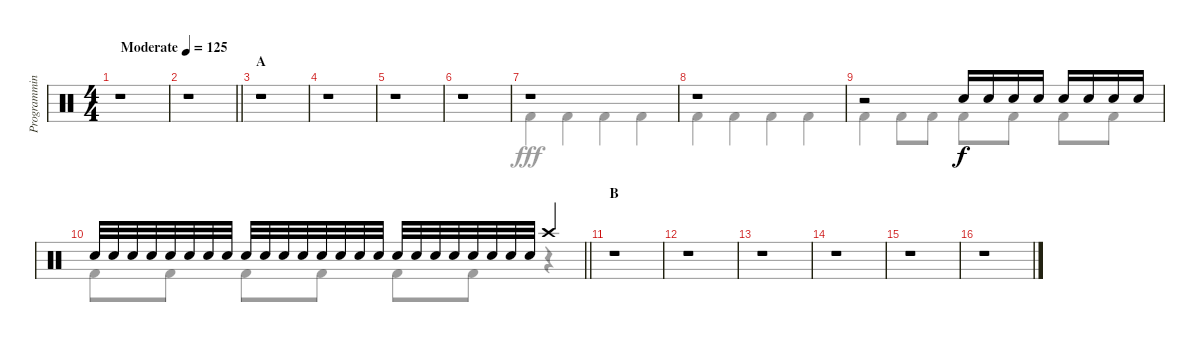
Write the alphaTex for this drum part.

\track ("Programming" "Programmin") {instrument percussion}
\staff {score}
\articulation defaults
\voice
\ts (4 4)
\tempo (125 "Moderate")
\clef neutral
\ks c
r.1{dy f} |
\barLineRight lightlight
r.1 |
\section ("" "A")
r.1 |
r.1 |
r.1 |
r.1 |
r.1 |
r.1 |
r.2 "Electric Snare (hit)".16 "Electric Snare (hit)".16 "Electric Snare (hit)".16 "Electric Snare (hit)".16 "Electric Snare (hit)".16 "Electric Snare (hit)".16 "Electric Snare (hit)".16 "Electric Snare (hit)".16 |
\barLineRight lightlight "Electric Snare (hit)".32 "Electric Snare (hit)".32 "Electric Snare (hit)".32 "Electric Snare (hit)".32 "Electric Snare (hit)".32 "Electric Snare (hit)".32 "Electric Snare (hit)".32 "Electric Snare (hit)".32 "Electric Snare (hit)".32 "Electric Snare (hit)".32 "Electric Snare (hit)".32 "Electric Snare (hit)".32 "Electric Snare (hit)".32 "Electric Snare (hit)".32 "Electric Snare (hit)".32 "Electric Snare (hit)".32 "Electric Snare (hit)".32 "Electric Snare (hit)".32 "Electric Snare (hit)".32 "Electric Snare (hit)".32 "Electric Snare (hit)".32 "Electric Snare (hit)".32 "Electric Snare (hit)".32 "Electric Snare (hit)".32 "Crash high (hit)".4
|
\section ("" "B")
r.1 |
r.1 |
r.1 |
r.1 |
r.1 |
r.1
\voice
\clef neutral
\ottava regular
\simile none
\ks c
r.1{dy fff} |
\barLineRight lightlight
r.1 |
r.1 |
r.1 |
r.1 |
r.1 |
"Kick (hit) 2".4 "Kick (hit) 2".4 "Kick (hit) 2".4 "Kick (hit) 2".4 |
"Kick (hit) 2".4 "Kick (hit) 2".4 "Kick (hit) 2".4 "Kick (hit) 2".4 |
"Kick (hit) 2".4 "Kick (hit) 2".8 "Kick (hit) 2".8 "Kick (hit) 2".8 "Kick (hit) 2".8 "Kick (hit) 2".8 "Kick (hit) 2".8 |
\barLineRight lightlight "Kick (hit) 2".8 "Kick (hit) 2".8 "Kick (hit) 2".8 "Kick (hit) 2".8 "Kick (hit) 2".8 "Kick (hit) 2".8
r.4 |
r.1 |
r.1 |
r.1 |
r.1 |
r.1 |
r.1
